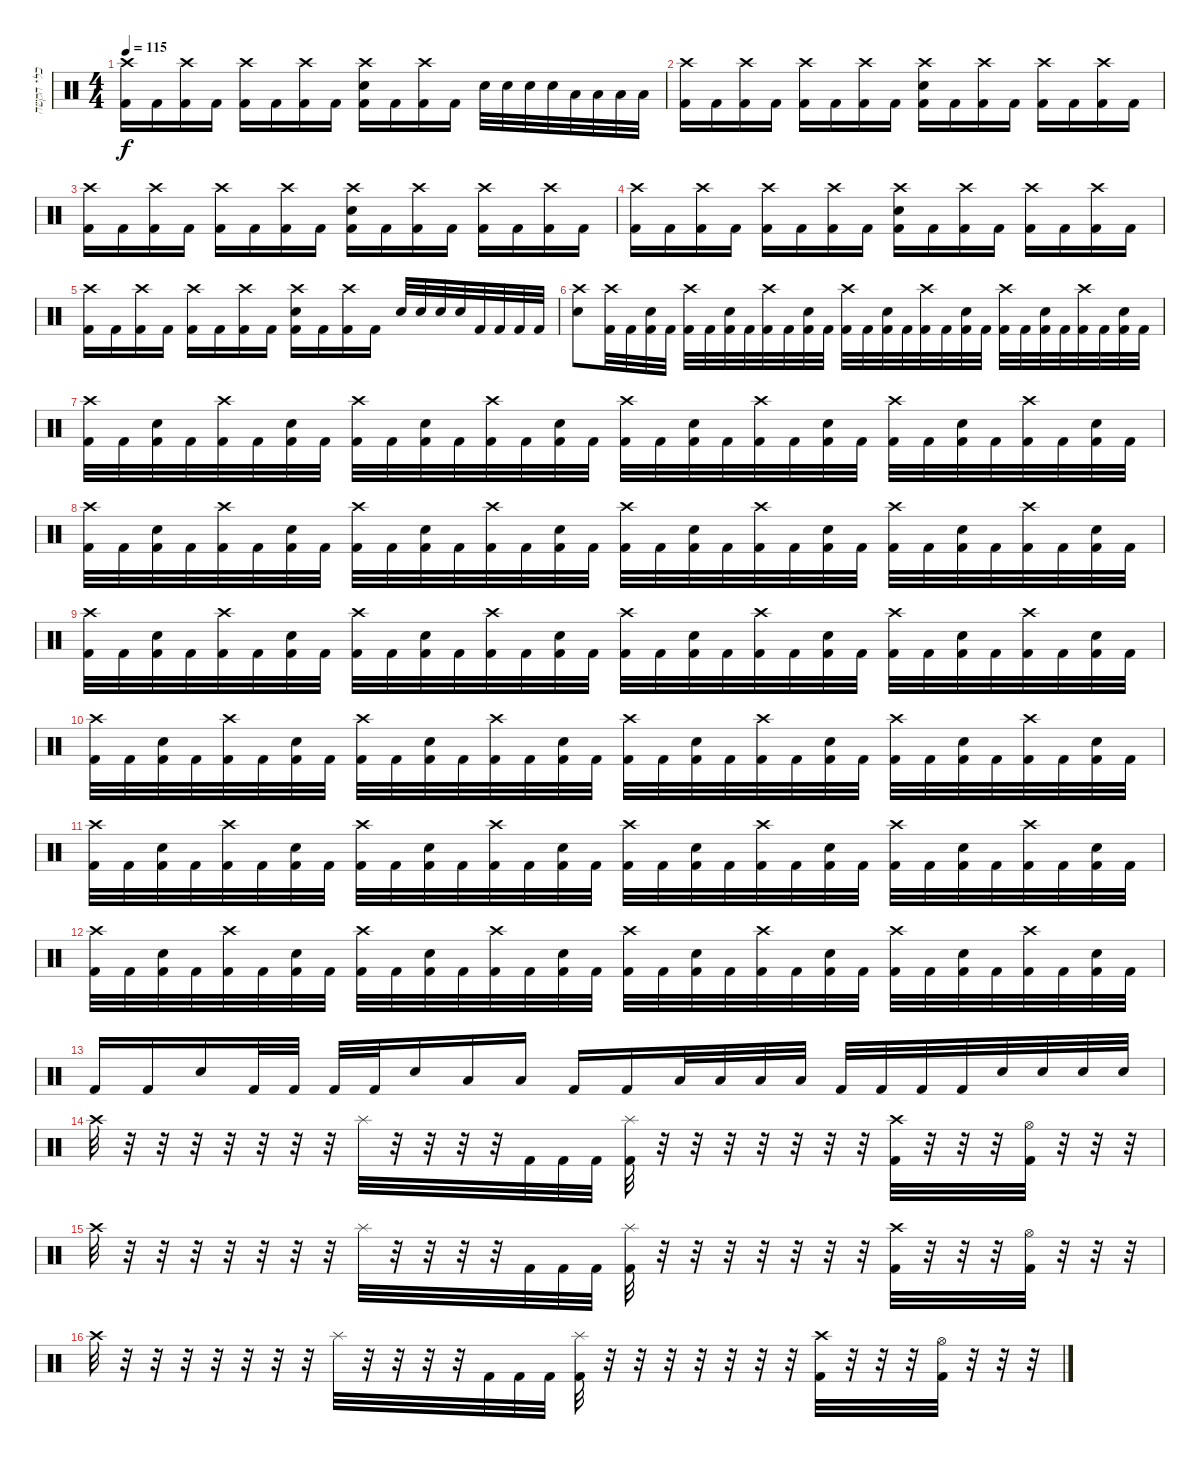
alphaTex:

\track ("כלי הקשה" "כלי הקשה") {instrument percussion}
\staff {score}
\articulation defaults
\ts (4 4)
\tempo 115
\clef neutral
\ks c
("Crash high (hit)" "Kick (hit) 2").16{dy f} "Kick (hit) 2".16 ("Crash high (hit)" "Kick (hit) 2").16 "Kick (hit) 2".16 ("Crash high (hit)" "Kick (hit) 2").16 "Kick (hit) 2".16 ("Crash high (hit)" "Kick (hit) 2").16 "Kick (hit) 2".16 ("Crash high (hit)" "Snare (hit) 2" "Kick (hit) 2").16 "Kick (hit) 2".16 ("Crash high (hit)" "Kick (hit) 2").16 "Kick (hit) 2".16 "Snare (hit) 2".32 "Snare (hit) 2".32 "Snare (hit) 2".32 "Snare (hit) 2".32 "Low Tom (hit)".32 "Low Tom (hit)".32 "Low Tom (hit)".32 "Low Tom (hit)".32 |
("Crash high (hit)" "Kick (hit) 2").16 "Kick (hit) 2".16 ("Crash high (hit)" "Kick (hit) 2").16 "Kick (hit) 2".16 ("Crash high (hit)" "Kick (hit) 2").16 "Kick (hit) 2".16 ("Crash high (hit)" "Kick (hit) 2").16 "Kick (hit) 2".16 ("Crash high (hit)" "Snare (hit) 2" "Kick (hit) 2").16 "Kick (hit) 2".16 ("Crash high (hit)" "Kick (hit) 2").16 "Kick (hit) 2".16 ("Crash high (hit)" "Kick (hit) 2").16 "Kick (hit) 2".16 ("Crash high (hit)" "Kick (hit) 2").16 "Kick (hit) 2".16 |
("Crash high (hit)" "Kick (hit) 2").16 "Kick (hit) 2".16 ("Crash high (hit)" "Kick (hit) 2").16 "Kick (hit) 2".16 ("Crash high (hit)" "Kick (hit) 2").16 "Kick (hit) 2".16 ("Crash high (hit)" "Kick (hit) 2").16 "Kick (hit) 2".16 ("Crash high (hit)" "Snare (hit) 2" "Kick (hit) 2").16 "Kick (hit) 2".16 ("Crash high (hit)" "Kick (hit) 2").16 "Kick (hit) 2".16 ("Crash high (hit)" "Kick (hit) 2").16 "Kick (hit) 2".16 ("Crash high (hit)" "Kick (hit) 2").16 "Kick (hit) 2".16 |
("Crash high (hit)" "Kick (hit) 2").16 "Kick (hit) 2".16 ("Crash high (hit)" "Kick (hit) 2").16 "Kick (hit) 2".16 ("Crash high (hit)" "Kick (hit) 2").16 "Kick (hit) 2".16 ("Crash high (hit)" "Kick (hit) 2").16 "Kick (hit) 2".16 ("Crash high (hit)" "Snare (hit) 2" "Kick (hit) 2").16 "Kick (hit) 2".16 ("Crash high (hit)" "Kick (hit) 2").16 "Kick (hit) 2".16 ("Crash high (hit)" "Kick (hit) 2").16 "Kick (hit) 2".16 ("Crash high (hit)" "Kick (hit) 2").16 "Kick (hit) 2".16 |
("Crash high (hit)" "Kick (hit) 2").16 "Kick (hit) 2".16 ("Crash high (hit)" "Kick (hit) 2").16 "Kick (hit) 2".16 ("Crash high (hit)" "Kick (hit) 2").16 "Kick (hit) 2".16 ("Crash high (hit)" "Kick (hit) 2").16 "Kick (hit) 2".16 ("Crash high (hit)" "Snare (hit) 2" "Kick (hit) 2").16 "Kick (hit) 2".16 ("Crash high (hit)" "Kick (hit) 2").16 "Kick (hit) 2".16 "Snare (hit) 2".32 "Snare (hit) 2".32 "Snare (hit) 2".32 "Snare (hit) 2".32 "Kick (hit) 2".32 "Kick (hit) 2".32 "Kick (hit) 2".32 "Kick (hit) 2".32 |
("Crash high (hit)" "Snare (hit) 2").8 ("Crash high (hit)" "Kick (hit) 2").32 "Kick (hit) 2".32 ("Snare (hit) 2" "Kick (hit) 2").32 "Kick (hit) 2".32 ("Crash high (hit)" "Kick (hit) 2").32 "Kick (hit) 2".32 ("Snare (hit) 2" "Kick (hit) 2").32 "Kick (hit) 2".32 ("Crash high (hit)" "Kick (hit) 2").32 "Kick (hit) 2".32 ("Snare (hit) 2" "Kick (hit) 2").32 "Kick (hit) 2".32 ("Crash high (hit)" "Kick (hit) 2").32 "Kick (hit) 2".32 ("Snare (hit) 2" "Kick (hit) 2").32 "Kick (hit) 2".32 ("Crash high (hit)" "Kick (hit) 2").32 "Kick (hit) 2".32 ("Snare (hit) 2" "Kick (hit) 2").32 "Kick (hit) 2".32 ("Crash high (hit)" "Kick (hit) 2").32 "Kick (hit) 2".32 ("Snare (hit) 2" "Kick (hit) 2").32 "Kick (hit) 2".32 ("Crash high (hit)" "Kick (hit) 2").32 "Kick (hit) 2".32 ("Snare (hit) 2" "Kick (hit) 2").32 "Kick (hit) 2".32 |
("Crash high (hit)" "Kick (hit) 2").32 "Kick (hit) 2".32 ("Snare (hit) 2" "Kick (hit) 2").32 "Kick (hit) 2".32 ("Crash high (hit)" "Kick (hit) 2").32 "Kick (hit) 2".32 ("Snare (hit) 2" "Kick (hit) 2").32 "Kick (hit) 2".32 ("Crash high (hit)" "Kick (hit) 2").32 "Kick (hit) 2".32 ("Snare (hit) 2" "Kick (hit) 2").32 "Kick (hit) 2".32 ("Crash high (hit)" "Kick (hit) 2").32 "Kick (hit) 2".32 ("Snare (hit) 2" "Kick (hit) 2").32 "Kick (hit) 2".32 ("Crash high (hit)" "Kick (hit) 2").32 "Kick (hit) 2".32 ("Snare (hit) 2" "Kick (hit) 2").32 "Kick (hit) 2".32 ("Crash high (hit)" "Kick (hit) 2").32 "Kick (hit) 2".32 ("Snare (hit) 2" "Kick (hit) 2").32 "Kick (hit) 2".32 ("Crash high (hit)" "Kick (hit) 2").32 "Kick (hit) 2".32 ("Snare (hit) 2" "Kick (hit) 2").32 "Kick (hit) 2".32 ("Crash high (hit)" "Kick (hit) 2").32 "Kick (hit) 2".32 ("Snare (hit) 2" "Kick (hit) 2").32 "Kick (hit) 2".32 |
("Crash high (hit)" "Kick (hit) 2").32 "Kick (hit) 2".32 ("Snare (hit) 2" "Kick (hit) 2").32 "Kick (hit) 2".32 ("Crash high (hit)" "Kick (hit) 2").32 "Kick (hit) 2".32 ("Snare (hit) 2" "Kick (hit) 2").32 "Kick (hit) 2".32 ("Crash high (hit)" "Kick (hit) 2").32 "Kick (hit) 2".32 ("Snare (hit) 2" "Kick (hit) 2").32 "Kick (hit) 2".32 ("Crash high (hit)" "Kick (hit) 2").32 "Kick (hit) 2".32 ("Snare (hit) 2" "Kick (hit) 2").32 "Kick (hit) 2".32 ("Crash high (hit)" "Kick (hit) 2").32 "Kick (hit) 2".32 ("Snare (hit) 2" "Kick (hit) 2").32 "Kick (hit) 2".32 ("Crash high (hit)" "Kick (hit) 2").32 "Kick (hit) 2".32 ("Snare (hit) 2" "Kick (hit) 2").32 "Kick (hit) 2".32 ("Crash high (hit)" "Kick (hit) 2").32 "Kick (hit) 2".32 ("Snare (hit) 2" "Kick (hit) 2").32 "Kick (hit) 2".32 ("Crash high (hit)" "Kick (hit) 2").32 "Kick (hit) 2".32 ("Snare (hit) 2" "Kick (hit) 2").32 "Kick (hit) 2".32 |
("Crash high (hit)" "Kick (hit) 2").32 "Kick (hit) 2".32 ("Snare (hit) 2" "Kick (hit) 2").32 "Kick (hit) 2".32 ("Crash high (hit)" "Kick (hit) 2").32 "Kick (hit) 2".32 ("Snare (hit) 2" "Kick (hit) 2").32 "Kick (hit) 2".32 ("Crash high (hit)" "Kick (hit) 2").32 "Kick (hit) 2".32 ("Snare (hit) 2" "Kick (hit) 2").32 "Kick (hit) 2".32 ("Crash high (hit)" "Kick (hit) 2").32 "Kick (hit) 2".32 ("Snare (hit) 2" "Kick (hit) 2").32 "Kick (hit) 2".32 ("Crash high (hit)" "Kick (hit) 2").32 "Kick (hit) 2".32 ("Snare (hit) 2" "Kick (hit) 2").32 "Kick (hit) 2".32 ("Crash high (hit)" "Kick (hit) 2").32 "Kick (hit) 2".32 ("Snare (hit) 2" "Kick (hit) 2").32 "Kick (hit) 2".32 ("Crash high (hit)" "Kick (hit) 2").32 "Kick (hit) 2".32 ("Snare (hit) 2" "Kick (hit) 2").32 "Kick (hit) 2".32 ("Crash high (hit)" "Kick (hit) 2").32 "Kick (hit) 2".32 ("Snare (hit) 2" "Kick (hit) 2").32 "Kick (hit) 2".32 |
("Crash high (hit)" "Kick (hit) 2").32 "Kick (hit) 2".32 ("Snare (hit) 2" "Kick (hit) 2").32 "Kick (hit) 2".32 ("Crash high (hit)" "Kick (hit) 2").32 "Kick (hit) 2".32 ("Snare (hit) 2" "Kick (hit) 2").32 "Kick (hit) 2".32 ("Crash high (hit)" "Kick (hit) 2").32 "Kick (hit) 2".32 ("Snare (hit) 2" "Kick (hit) 2").32 "Kick (hit) 2".32 ("Crash high (hit)" "Kick (hit) 2").32 "Kick (hit) 2".32 ("Snare (hit) 2" "Kick (hit) 2").32 "Kick (hit) 2".32 ("Crash high (hit)" "Kick (hit) 2").32 "Kick (hit) 2".32 ("Snare (hit) 2" "Kick (hit) 2").32 "Kick (hit) 2".32 ("Crash high (hit)" "Kick (hit) 2").32 "Kick (hit) 2".32 ("Snare (hit) 2" "Kick (hit) 2").32 "Kick (hit) 2".32 ("Crash high (hit)" "Kick (hit) 2").32 "Kick (hit) 2".32 ("Snare (hit) 2" "Kick (hit) 2").32 "Kick (hit) 2".32 ("Crash high (hit)" "Kick (hit) 2").32 "Kick (hit) 2".32 ("Snare (hit) 2" "Kick (hit) 2").32 "Kick (hit) 2".32 |
("Crash high (hit)" "Kick (hit) 2").32 "Kick (hit) 2".32 ("Snare (hit) 2" "Kick (hit) 2").32 "Kick (hit) 2".32 ("Crash high (hit)" "Kick (hit) 2").32 "Kick (hit) 2".32 ("Snare (hit) 2" "Kick (hit) 2").32 "Kick (hit) 2".32 ("Crash high (hit)" "Kick (hit) 2").32 "Kick (hit) 2".32 ("Snare (hit) 2" "Kick (hit) 2").32 "Kick (hit) 2".32 ("Crash high (hit)" "Kick (hit) 2").32 "Kick (hit) 2".32 ("Snare (hit) 2" "Kick (hit) 2").32 "Kick (hit) 2".32 ("Crash high (hit)" "Kick (hit) 2").32 "Kick (hit) 2".32 ("Snare (hit) 2" "Kick (hit) 2").32 "Kick (hit) 2".32 ("Crash high (hit)" "Kick (hit) 2").32 "Kick (hit) 2".32 ("Snare (hit) 2" "Kick (hit) 2").32 "Kick (hit) 2".32 ("Crash high (hit)" "Kick (hit) 2").32 "Kick (hit) 2".32 ("Snare (hit) 2" "Kick (hit) 2").32 "Kick (hit) 2".32 ("Crash high (hit)" "Kick (hit) 2").32 "Kick (hit) 2".32 ("Snare (hit) 2" "Kick (hit) 2").32 "Kick (hit) 2".32 |
("Crash high (hit)" "Kick (hit) 2").32 "Kick (hit) 2".32 ("Snare (hit) 2" "Kick (hit) 2").32 "Kick (hit) 2".32 ("Crash high (hit)" "Kick (hit) 2").32 "Kick (hit) 2".32 ("Snare (hit) 2" "Kick (hit) 2").32 "Kick (hit) 2".32 ("Crash high (hit)" "Kick (hit) 2").32 "Kick (hit) 2".32 ("Snare (hit) 2" "Kick (hit) 2").32 "Kick (hit) 2".32 ("Crash high (hit)" "Kick (hit) 2").32 "Kick (hit) 2".32 ("Snare (hit) 2" "Kick (hit) 2").32 "Kick (hit) 2".32 ("Crash high (hit)" "Kick (hit) 2").32 "Kick (hit) 2".32 ("Snare (hit) 2" "Kick (hit) 2").32 "Kick (hit) 2".32 ("Crash high (hit)" "Kick (hit) 2").32 "Kick (hit) 2".32 ("Snare (hit) 2" "Kick (hit) 2").32 "Kick (hit) 2".32 ("Crash high (hit)" "Kick (hit) 2").32 "Kick (hit) 2".32 ("Snare (hit) 2" "Kick (hit) 2").32 "Kick (hit) 2".32 ("Crash high (hit)" "Kick (hit) 2").32 "Kick (hit) 2".32 ("Snare (hit) 2" "Kick (hit) 2").32 "Kick (hit) 2".32 |
"Kick (hit) 2".16 "Kick (hit) 2".16 "Snare (hit) 2".16 "Kick (hit) 2".32 "Kick (hit) 2".32 "Kick (hit) 2".32 "Kick (hit) 2".32 "Snare (hit) 2".16 "Low Tom (hit)".16 "Low Tom (hit)".16 "Kick (hit) 2".16 "Kick (hit) 2".16 "Low Tom (hit)".32 "Low Tom (hit)".32 "Low Tom (hit)".32 "Low Tom (hit)".32 "Kick (hit) 2".32 "Kick (hit) 2".32 "Kick (hit) 2".32 "Kick (hit) 2".32 "Snare (hit) 2".32 "Snare (hit) 2".32 "Snare (hit) 2".32 "Snare (hit) 2".32 |
"Crash high (hit)".32 r.32 r.32 r.32 r.32 r.32 r.32 r.32 "Splash (hit)".32 r.32 r.32 r.32 r.32 "Kick (hit) 2".32 "Kick (hit) 2".32 "Kick (hit) 2".32 ("Splash (hit)" "Kick (hit) 2").32 r.32 r.32 r.32 r.32 r.32 r.32 r.32 ("Crash high (hit)" "Kick (hit) 2").32 r.32 r.32 r.32 ("Hi-Hat (open)" "Kick (hit) 2").32 r.32 r.32 r.32 |
"Crash high (hit)".32 r.32 r.32 r.32 r.32 r.32 r.32 r.32 "Splash (hit)".32 r.32 r.32 r.32 r.32 "Kick (hit) 2".32 "Kick (hit) 2".32 "Kick (hit) 2".32 ("Splash (hit)" "Kick (hit) 2").32 r.32 r.32 r.32 r.32 r.32 r.32 r.32 ("Crash high (hit)" "Kick (hit) 2").32 r.32 r.32 r.32 ("Hi-Hat (open)" "Kick (hit) 2").32 r.32 r.32 r.32 |
"Crash high (hit)".32 r.32 r.32 r.32 r.32 r.32 r.32 r.32 "Splash (hit)".32 r.32 r.32 r.32 r.32 "Kick (hit) 2".32 "Kick (hit) 2".32 "Kick (hit) 2".32 ("Splash (hit)" "Kick (hit) 2").32 r.32 r.32 r.32 r.32 r.32 r.32 r.32 ("Crash high (hit)" "Kick (hit) 2").32 r.32 r.32 r.32 ("Hi-Hat (open)" "Kick (hit) 2").32 r.32 r.32 r.32
